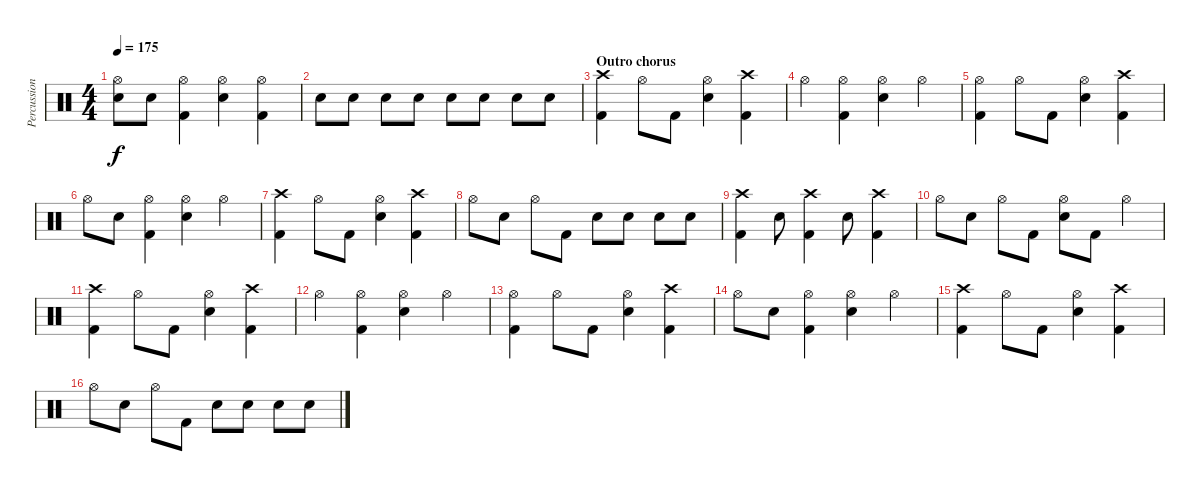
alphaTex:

\track ("Percussion" "Percussion") {instrument percussion}
\staff {score}
\articulation defaults
\ts (4 4)
\tempo 175
\clef neutral
\ks c
("Hi-Hat (open)" "Electric Snare (hit)").8{dy f} "Electric Snare (hit)".8 ("Hi-Hat (open)" "Kick (hit) 2").4 ("Hi-Hat (open)" "Electric Snare (hit)").4 ("Hi-Hat (open)" "Kick (hit) 2").4 |
"Electric Snare (hit)".8 "Electric Snare (hit)".8 "Electric Snare (hit)".8 "Electric Snare (hit)".8 "Electric Snare (hit)".8 "Electric Snare (hit)".8 "Electric Snare (hit)".8 "Electric Snare (hit)".8 |
\section ("" "Outro chorus")
("Crash high (hit)" "Kick (hit) 2").4 "Hi-Hat (open)".8 "Kick (hit) 2".8 ("Hi-Hat (open)" "Electric Snare (hit)").4 ("Crash high (hit)" "Kick (hit) 2").4 |
"Hi-Hat (open)".4 ("Hi-Hat (open)" "Kick (hit) 2").4 ("Hi-Hat (open)" "Electric Snare (hit)").4 "Hi-Hat (open)".4 |
("Hi-Hat (open)" "Kick (hit) 2").4 "Hi-Hat (open)".8 "Kick (hit) 2".8 ("Hi-Hat (open)" "Electric Snare (hit)").4 ("Crash high (hit)" "Kick (hit) 2").4 |
"Hi-Hat (open)".8 "Electric Snare (hit)".8 ("Hi-Hat (open)" "Kick (hit) 2").4 ("Hi-Hat (open)" "Electric Snare (hit)").4 "Hi-Hat (open)".4 |
("Crash high (hit)" "Kick (hit) 2").4 "Hi-Hat (open)".8 "Kick (hit) 2".8 ("Hi-Hat (open)" "Electric Snare (hit)").4 ("Crash high (hit)" "Kick (hit) 2").4 |
"Hi-Hat (open)".8 "Electric Snare (hit)".8 "Hi-Hat (open)".8 "Kick (hit) 2".8 "Electric Snare (hit)".8 "Electric Snare (hit)".8 "Electric Snare (hit)".8 "Electric Snare (hit)".8 |
("Crash high (hit)" "Kick (hit) 2").4 "Electric Snare (hit)".8 ("Crash high (hit)" "Kick (hit) 2").4 "Electric Snare (hit)".8 ("Crash high (hit)" "Kick (hit) 2").4 |
"Hi-Hat (open)".8 "Electric Snare (hit)".8 "Hi-Hat (open)".8 "Kick (hit) 2".8 ("Hi-Hat (open)" "Electric Snare (hit)").8 "Kick (hit) 2".8 "Hi-Hat (open)".4 |
("Crash high (hit)" "Kick (hit) 2").4 "Hi-Hat (open)".8 "Kick (hit) 2".8 ("Hi-Hat (open)" "Electric Snare (hit)").4 ("Crash high (hit)" "Kick (hit) 2").4 |
"Hi-Hat (open)".4 ("Hi-Hat (open)" "Kick (hit) 2").4 ("Hi-Hat (open)" "Electric Snare (hit)").4 "Hi-Hat (open)".4 |
("Hi-Hat (open)" "Kick (hit) 2").4 "Hi-Hat (open)".8 "Kick (hit) 2".8 ("Hi-Hat (open)" "Electric Snare (hit)").4 ("Crash high (hit)" "Kick (hit) 2").4 |
"Hi-Hat (open)".8 "Electric Snare (hit)".8 ("Hi-Hat (open)" "Kick (hit) 2").4 ("Hi-Hat (open)" "Electric Snare (hit)").4 "Hi-Hat (open)".4 |
("Crash high (hit)" "Kick (hit) 2").4 "Hi-Hat (open)".8 "Kick (hit) 2".8 ("Hi-Hat (open)" "Electric Snare (hit)").4 ("Crash high (hit)" "Kick (hit) 2").4 |
"Hi-Hat (open)".8 "Electric Snare (hit)".8 "Hi-Hat (open)".8 "Kick (hit) 2".8 "Electric Snare (hit)".8 "Electric Snare (hit)".8 "Electric Snare (hit)".8 "Electric Snare (hit)".8
